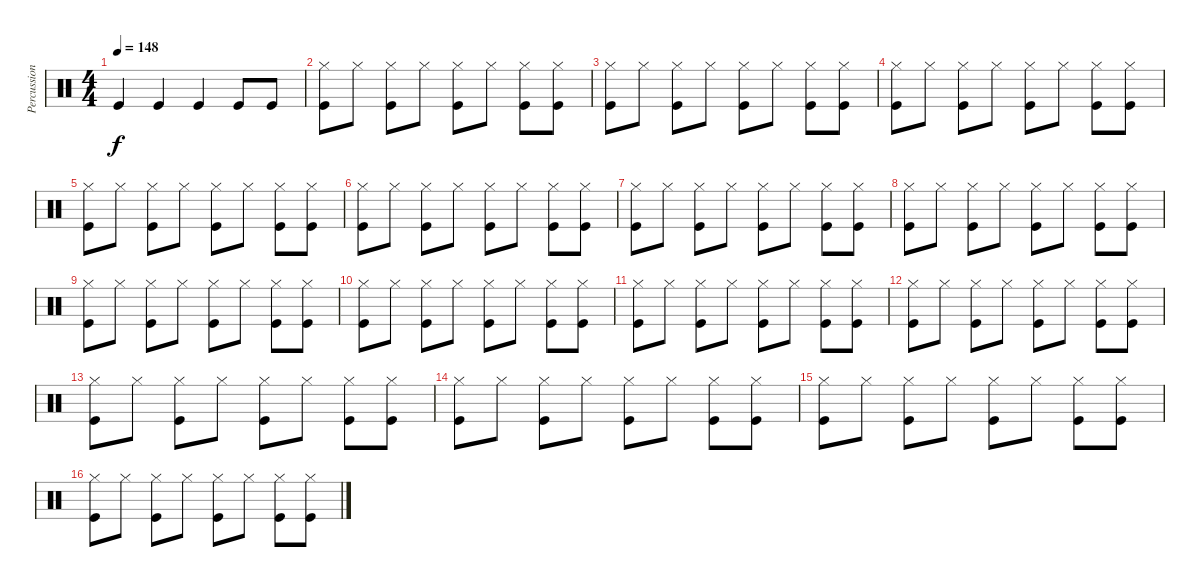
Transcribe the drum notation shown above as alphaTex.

\track ("Percussion" "Percussion") {instrument percussion}
\staff {score}
\articulation defaults
\ts (4 4)
\tempo 148
\clef neutral
\ks c "Kick (hit)".4{dy f} "Kick (hit)".4 "Kick (hit)".4 "Kick (hit)".8 "Kick (hit)".8
|
("Hi-Hat (closed)" "Kick (hit)").8 "Hi-Hat (closed)".8 ("Hi-Hat (closed)" "Kick (hit)").8 "Hi-Hat (closed)".8 ("Hi-Hat (closed)" "Kick (hit)").8 "Hi-Hat (closed)".8 ("Hi-Hat (closed)" "Kick (hit)").8 ("Hi-Hat (closed)" "Kick (hit)").8 |
("Hi-Hat (closed)" "Kick (hit)").8 "Hi-Hat (closed)".8 ("Hi-Hat (closed)" "Kick (hit)").8 "Hi-Hat (closed)".8 ("Hi-Hat (closed)" "Kick (hit)").8 "Hi-Hat (closed)".8 ("Hi-Hat (closed)" "Kick (hit)").8 ("Hi-Hat (closed)" "Kick (hit)").8 |
("Hi-Hat (closed)" "Kick (hit)").8 "Hi-Hat (closed)".8 ("Hi-Hat (closed)" "Kick (hit)").8 "Hi-Hat (closed)".8 ("Hi-Hat (closed)" "Kick (hit)").8 "Hi-Hat (closed)".8 ("Hi-Hat (closed)" "Kick (hit)").8 ("Hi-Hat (closed)" "Kick (hit)").8 |
("Hi-Hat (closed)" "Kick (hit)").8 "Hi-Hat (closed)".8 ("Hi-Hat (closed)" "Kick (hit)").8 "Hi-Hat (closed)".8 ("Hi-Hat (closed)" "Kick (hit)").8 "Hi-Hat (closed)".8 ("Hi-Hat (closed)" "Kick (hit)").8 ("Hi-Hat (closed)" "Kick (hit)").8 |
("Hi-Hat (closed)" "Kick (hit)").8 "Hi-Hat (closed)".8 ("Hi-Hat (closed)" "Kick (hit)").8 "Hi-Hat (closed)".8 ("Hi-Hat (closed)" "Kick (hit)").8 "Hi-Hat (closed)".8 ("Hi-Hat (closed)" "Kick (hit)").8 ("Hi-Hat (closed)" "Kick (hit)").8 |
("Hi-Hat (closed)" "Kick (hit)").8 "Hi-Hat (closed)".8 ("Hi-Hat (closed)" "Kick (hit)").8 "Hi-Hat (closed)".8 ("Hi-Hat (closed)" "Kick (hit)").8 "Hi-Hat (closed)".8 ("Hi-Hat (closed)" "Kick (hit)").8 ("Hi-Hat (closed)" "Kick (hit)").8 |
("Hi-Hat (closed)" "Kick (hit)").8 "Hi-Hat (closed)".8 ("Hi-Hat (closed)" "Kick (hit)").8 "Hi-Hat (closed)".8 ("Hi-Hat (closed)" "Kick (hit)").8 "Hi-Hat (closed)".8 ("Hi-Hat (closed)" "Kick (hit)").8 ("Hi-Hat (closed)" "Kick (hit)").8 |
("Hi-Hat (closed)" "Kick (hit)").8 "Hi-Hat (closed)".8 ("Hi-Hat (closed)" "Kick (hit)").8 "Hi-Hat (closed)".8 ("Hi-Hat (closed)" "Kick (hit)").8 "Hi-Hat (closed)".8 ("Hi-Hat (closed)" "Kick (hit)").8 ("Hi-Hat (closed)" "Kick (hit)").8 |
("Hi-Hat (closed)" "Kick (hit)").8 "Hi-Hat (closed)".8 ("Hi-Hat (closed)" "Kick (hit)").8 "Hi-Hat (closed)".8 ("Hi-Hat (closed)" "Kick (hit)").8 "Hi-Hat (closed)".8 ("Hi-Hat (closed)" "Kick (hit)").8 ("Hi-Hat (closed)" "Kick (hit)").8 |
("Hi-Hat (closed)" "Kick (hit)").8 "Hi-Hat (closed)".8 ("Hi-Hat (closed)" "Kick (hit)").8 "Hi-Hat (closed)".8 ("Hi-Hat (closed)" "Kick (hit)").8 "Hi-Hat (closed)".8 ("Hi-Hat (closed)" "Kick (hit)").8 ("Hi-Hat (closed)" "Kick (hit)").8 |
("Hi-Hat (closed)" "Kick (hit)").8 "Hi-Hat (closed)".8 ("Hi-Hat (closed)" "Kick (hit)").8 "Hi-Hat (closed)".8 ("Hi-Hat (closed)" "Kick (hit)").8 "Hi-Hat (closed)".8 ("Hi-Hat (closed)" "Kick (hit)").8 ("Hi-Hat (closed)" "Kick (hit)").8 |
("Hi-Hat (closed)" "Kick (hit)").8 "Hi-Hat (closed)".8 ("Hi-Hat (closed)" "Kick (hit)").8 "Hi-Hat (closed)".8 ("Hi-Hat (closed)" "Kick (hit)").8 "Hi-Hat (closed)".8 ("Hi-Hat (closed)" "Kick (hit)").8 ("Hi-Hat (closed)" "Kick (hit)").8 |
("Hi-Hat (closed)" "Kick (hit)").8 "Hi-Hat (closed)".8 ("Hi-Hat (closed)" "Kick (hit)").8 "Hi-Hat (closed)".8 ("Hi-Hat (closed)" "Kick (hit)").8 "Hi-Hat (closed)".8 ("Hi-Hat (closed)" "Kick (hit)").8 ("Hi-Hat (closed)" "Kick (hit)").8 |
("Hi-Hat (closed)" "Kick (hit)").8 "Hi-Hat (closed)".8 ("Hi-Hat (closed)" "Kick (hit)").8 "Hi-Hat (closed)".8 ("Hi-Hat (closed)" "Kick (hit)").8 "Hi-Hat (closed)".8 ("Hi-Hat (closed)" "Kick (hit)").8 ("Hi-Hat (closed)" "Kick (hit)").8 |
("Hi-Hat (closed)" "Kick (hit)").8 "Hi-Hat (closed)".8 ("Hi-Hat (closed)" "Kick (hit)").8 "Hi-Hat (closed)".8 ("Hi-Hat (closed)" "Kick (hit)").8 "Hi-Hat (closed)".8 ("Hi-Hat (closed)" "Kick (hit)").8 ("Hi-Hat (closed)" "Kick (hit)").8
